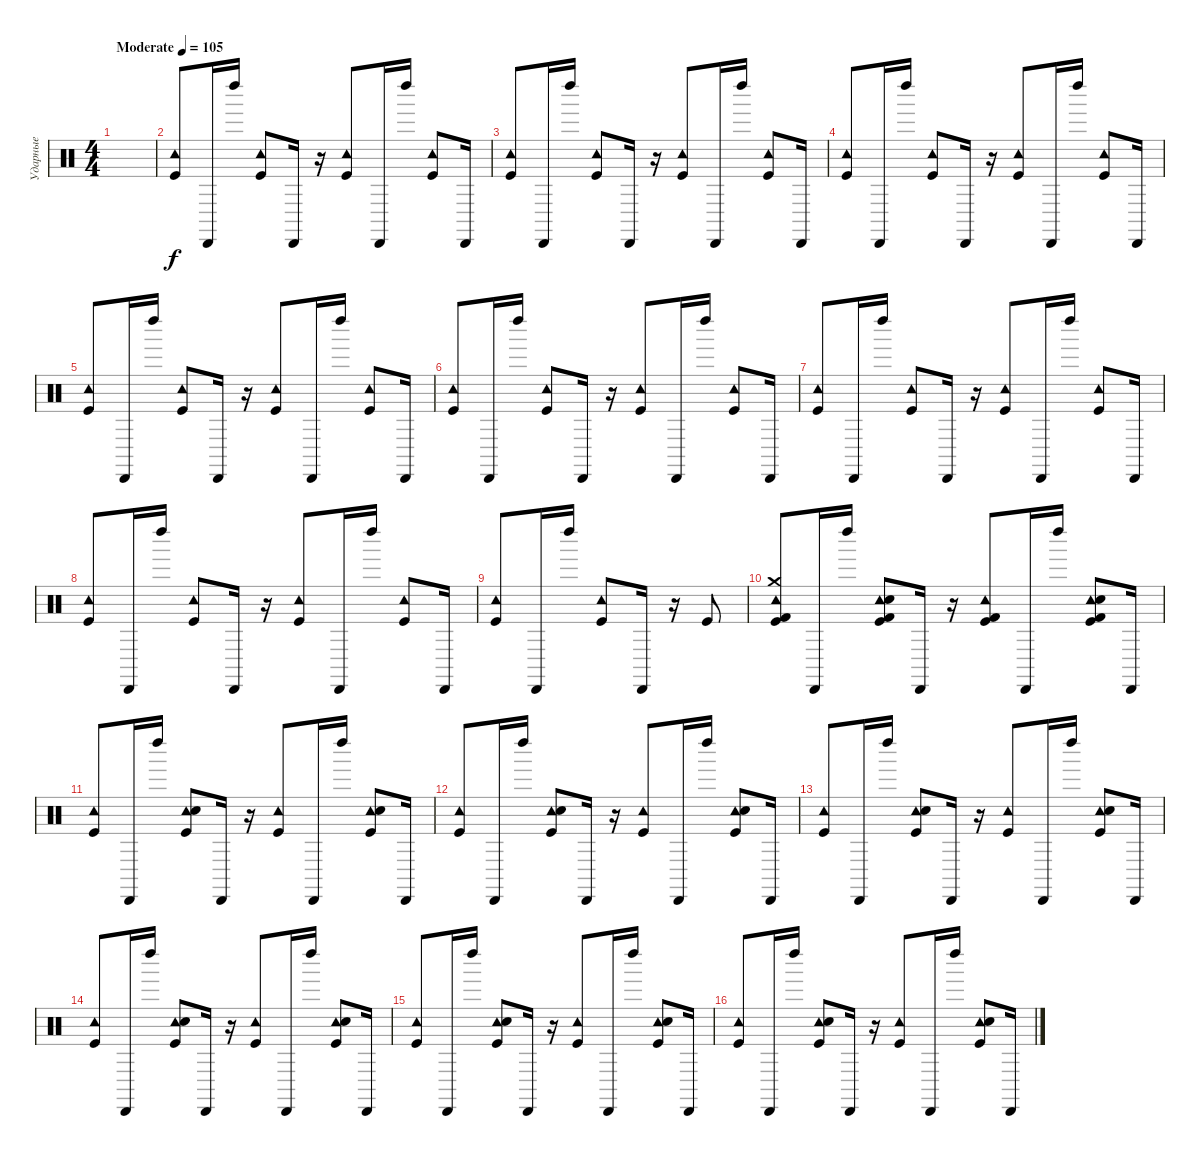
\track ("Ударные" "Ударные") {instrument percussion}
\staff {score}
\articulation defaults
\ts (4 4)
\tempo (105 "Moderate")
\clef neutral
\ks c
|
("Kick (hit)" "Tambourine (hit)").8 "Cabasa (hit)".16 "Left Maraca (hit)".16 ("Kick (hit)" "Tambourine (hit)").8 "Cabasa (hit)".16 r.16 ("Kick (hit)" "Tambourine (hit)").8 "Cabasa (hit)".16 "Left Maraca (hit)".16 ("Kick (hit)" "Tambourine (hit)").8 "Cabasa (hit)".16 |
("Kick (hit)" "Tambourine (hit)").8 "Cabasa (hit)".16 "Left Maraca (hit)".16 ("Kick (hit)" "Tambourine (hit)").8 "Cabasa (hit)".16 r.16 ("Kick (hit)" "Tambourine (hit)").8 "Cabasa (hit)".16 "Left Maraca (hit)".16 ("Kick (hit)" "Tambourine (hit)").8 "Cabasa (hit)".16 |
("Kick (hit)" "Tambourine (hit)").8 "Cabasa (hit)".16 "Left Maraca (hit)".16 ("Kick (hit)" "Tambourine (hit)").8 "Cabasa (hit)".16 r.16 ("Kick (hit)" "Tambourine (hit)").8 "Cabasa (hit)".16 "Left Maraca (hit)".16 ("Kick (hit)" "Tambourine (hit)").8 "Cabasa (hit)".16 |
("Kick (hit)" "Tambourine (hit)").8 "Cabasa (hit)".16 "Left Maraca (hit)".16 ("Kick (hit)" "Tambourine (hit)").8 "Cabasa (hit)".16 r.16 ("Kick (hit)" "Tambourine (hit)").8 "Cabasa (hit)".16 "Left Maraca (hit)".16 ("Kick (hit)" "Tambourine (hit)").8 "Cabasa (hit)".16 |
("Kick (hit)" "Tambourine (hit)").8 "Cabasa (hit)".16 "Left Maraca (hit)".16 ("Kick (hit)" "Tambourine (hit)").8 "Cabasa (hit)".16 r.16 ("Kick (hit)" "Tambourine (hit)").8 "Cabasa (hit)".16 "Left Maraca (hit)".16 ("Kick (hit)" "Tambourine (hit)").8 "Cabasa (hit)".16 |
("Kick (hit)" "Tambourine (hit)").8 "Cabasa (hit)".16 "Left Maraca (hit)".16 ("Kick (hit)" "Tambourine (hit)").8 "Cabasa (hit)".16 r.16 ("Kick (hit)" "Tambourine (hit)").8 "Cabasa (hit)".16 "Left Maraca (hit)".16 ("Kick (hit)" "Tambourine (hit)").8 "Cabasa (hit)".16 |
("Kick (hit)" "Tambourine (hit)").8 "Cabasa (hit)".16 "Left Maraca (hit)".16 ("Kick (hit)" "Tambourine (hit)").8 "Cabasa (hit)".16 r.16 ("Kick (hit)" "Tambourine (hit)").8 "Cabasa (hit)".16 "Left Maraca (hit)".16 ("Kick (hit)" "Tambourine (hit)").8 "Cabasa (hit)".16 |
("Kick (hit)" "Tambourine (hit)").8 "Cabasa (hit)".16 "Left Maraca (hit)".16 ("Kick (hit)" "Tambourine (hit)").8 "Cabasa (hit)".16 r.16 "Kick (hit)".8 |
("Kick (hit)" "Tambourine (hit)" "Crash medium (hit)" "Kick (hit) 2").8 "Cabasa (hit)".16 "Left Maraca (hit)".16 ("Kick (hit)" "Tambourine (hit)" "Snare (hit) 2" "Kick (hit) 2").8 "Cabasa (hit)".16 r.16 ("Kick (hit)" "Tambourine (hit)" "Kick (hit) 2").8 "Cabasa (hit)".16 "Left Maraca (hit)".16 ("Kick (hit)" "Tambourine (hit)" "Snare (hit) 2" "Kick (hit) 2").8 "Cabasa (hit)".16 |
("Kick (hit)" "Tambourine (hit)").8 "Cabasa (hit)".16 "Left Maraca (hit)".16 ("Kick (hit)" "Tambourine (hit)" "Snare (hit) 2").8 "Cabasa (hit)".16 r.16 ("Kick (hit)" "Tambourine (hit)").8 "Cabasa (hit)".16 "Left Maraca (hit)".16 ("Kick (hit)" "Tambourine (hit)" "Snare (hit) 2").8 "Cabasa (hit)".16 |
("Kick (hit)" "Tambourine (hit)").8 "Cabasa (hit)".16 "Left Maraca (hit)".16 ("Kick (hit)" "Tambourine (hit)" "Snare (hit) 2").8 "Cabasa (hit)".16 r.16 ("Kick (hit)" "Tambourine (hit)").8 "Cabasa (hit)".16 "Left Maraca (hit)".16 ("Kick (hit)" "Tambourine (hit)" "Snare (hit) 2").8 "Cabasa (hit)".16 |
("Kick (hit)" "Tambourine (hit)").8 "Cabasa (hit)".16 "Left Maraca (hit)".16 ("Kick (hit)" "Tambourine (hit)" "Snare (hit) 2").8 "Cabasa (hit)".16 r.16 ("Kick (hit)" "Tambourine (hit)").8 "Cabasa (hit)".16 "Left Maraca (hit)".16 ("Kick (hit)" "Tambourine (hit)" "Snare (hit) 2").8 "Cabasa (hit)".16 |
("Kick (hit)" "Tambourine (hit)").8 "Cabasa (hit)".16 "Left Maraca (hit)".16 ("Kick (hit)" "Tambourine (hit)" "Snare (hit) 2").8 "Cabasa (hit)".16 r.16 ("Kick (hit)" "Tambourine (hit)").8 "Cabasa (hit)".16 "Left Maraca (hit)".16 ("Kick (hit)" "Tambourine (hit)" "Snare (hit) 2").8 "Cabasa (hit)".16 |
("Kick (hit)" "Tambourine (hit)").8 "Cabasa (hit)".16 "Left Maraca (hit)".16 ("Kick (hit)" "Tambourine (hit)" "Snare (hit) 2").8 "Cabasa (hit)".16 r.16 ("Kick (hit)" "Tambourine (hit)").8 "Cabasa (hit)".16 "Left Maraca (hit)".16 ("Kick (hit)" "Tambourine (hit)" "Snare (hit) 2").8 "Cabasa (hit)".16 |
("Kick (hit)" "Tambourine (hit)").8 "Cabasa (hit)".16 "Left Maraca (hit)".16 ("Kick (hit)" "Tambourine (hit)" "Snare (hit) 2").8 "Cabasa (hit)".16 r.16 ("Kick (hit)" "Tambourine (hit)").8 "Cabasa (hit)".16 "Left Maraca (hit)".16 ("Kick (hit)" "Tambourine (hit)" "Snare (hit) 2").8 "Cabasa (hit)".16
